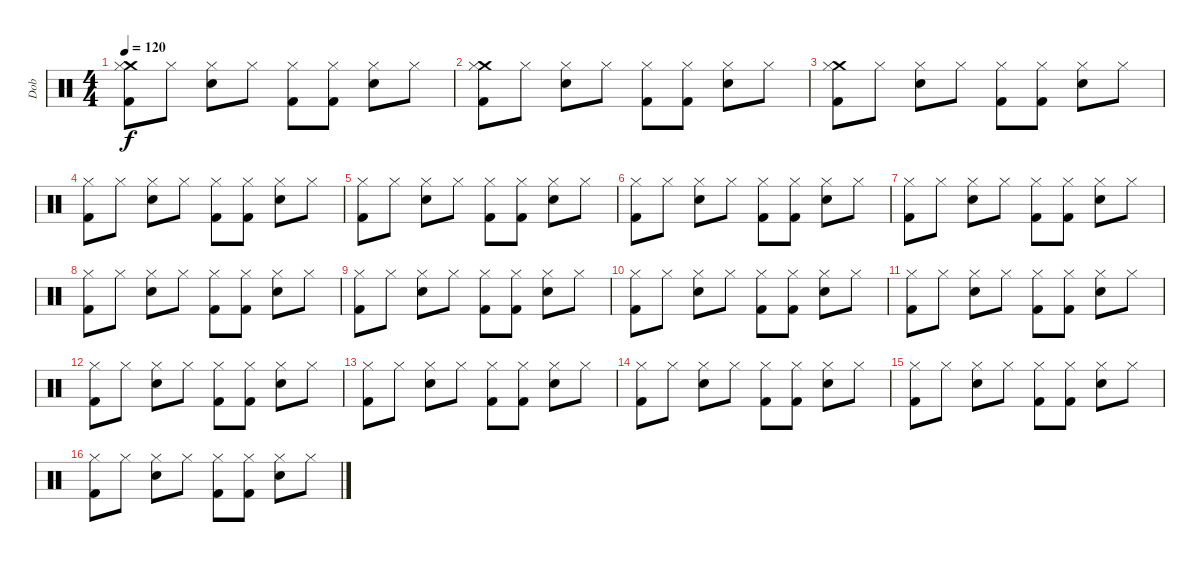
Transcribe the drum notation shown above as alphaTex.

\track ("Dob" "Dob") {instrument percussion}
\staff {score}
\articulation defaults
\ts (4 4)
\tempo 120
\clef neutral
\ks c
("Crash medium (hit)" "Hi-Hat (closed)" "Kick (hit) 2").8{dy f} "Hi-Hat (closed)".8 ("Hi-Hat (closed)" "Snare (hit) 2").8 "Hi-Hat (closed)".8 ("Hi-Hat (closed)" "Kick (hit) 2").8 ("Hi-Hat (closed)" "Kick (hit) 2").8 ("Hi-Hat (closed)" "Snare (hit) 2").8 "Hi-Hat (closed)".8 |
("Crash medium (hit)" "Hi-Hat (closed)" "Kick (hit) 2").8 "Hi-Hat (closed)".8 ("Hi-Hat (closed)" "Snare (hit) 2").8 "Hi-Hat (closed)".8 ("Hi-Hat (closed)" "Kick (hit) 2").8 ("Hi-Hat (closed)" "Kick (hit) 2").8 ("Hi-Hat (closed)" "Snare (hit) 2").8 "Hi-Hat (closed)".8 |
("Crash medium (hit)" "Hi-Hat (closed)" "Kick (hit) 2").8 "Hi-Hat (closed)".8 ("Hi-Hat (closed)" "Snare (hit) 2").8 "Hi-Hat (closed)".8 ("Hi-Hat (closed)" "Kick (hit) 2").8 ("Hi-Hat (closed)" "Kick (hit) 2").8 ("Hi-Hat (closed)" "Snare (hit) 2").8 "Hi-Hat (closed)".8 |
("Hi-Hat (closed)" "Kick (hit) 2").8 "Hi-Hat (closed)".8 ("Hi-Hat (closed)" "Snare (hit) 2").8 "Hi-Hat (closed)".8 ("Hi-Hat (closed)" "Kick (hit) 2").8 ("Hi-Hat (closed)" "Kick (hit) 2").8 ("Hi-Hat (closed)" "Snare (hit) 2").8 "Hi-Hat (closed)".8 |
("Hi-Hat (closed)" "Kick (hit) 2").8 "Hi-Hat (closed)".8 ("Hi-Hat (closed)" "Snare (hit) 2").8 "Hi-Hat (closed)".8 ("Hi-Hat (closed)" "Kick (hit) 2").8 ("Hi-Hat (closed)" "Kick (hit) 2").8 ("Hi-Hat (closed)" "Snare (hit) 2").8 "Hi-Hat (closed)".8 |
("Hi-Hat (closed)" "Kick (hit) 2").8 "Hi-Hat (closed)".8 ("Hi-Hat (closed)" "Snare (hit) 2").8 "Hi-Hat (closed)".8 ("Hi-Hat (closed)" "Kick (hit) 2").8 ("Hi-Hat (closed)" "Kick (hit) 2").8 ("Hi-Hat (closed)" "Snare (hit) 2").8 "Hi-Hat (closed)".8 |
("Hi-Hat (closed)" "Kick (hit) 2").8 "Hi-Hat (closed)".8 ("Hi-Hat (closed)" "Snare (hit) 2").8 "Hi-Hat (closed)".8 ("Hi-Hat (closed)" "Kick (hit) 2").8 ("Hi-Hat (closed)" "Kick (hit) 2").8 ("Hi-Hat (closed)" "Snare (hit) 2").8 "Hi-Hat (closed)".8 |
("Hi-Hat (closed)" "Kick (hit) 2").8 "Hi-Hat (closed)".8 ("Hi-Hat (closed)" "Snare (hit) 2").8 "Hi-Hat (closed)".8 ("Hi-Hat (closed)" "Kick (hit) 2").8 ("Hi-Hat (closed)" "Kick (hit) 2").8 ("Hi-Hat (closed)" "Snare (hit) 2").8 "Hi-Hat (closed)".8 |
("Hi-Hat (closed)" "Kick (hit) 2").8 "Hi-Hat (closed)".8 ("Hi-Hat (closed)" "Snare (hit) 2").8 "Hi-Hat (closed)".8 ("Hi-Hat (closed)" "Kick (hit) 2").8 ("Hi-Hat (closed)" "Kick (hit) 2").8 ("Hi-Hat (closed)" "Snare (hit) 2").8 "Hi-Hat (closed)".8 |
("Hi-Hat (closed)" "Kick (hit) 2").8 "Hi-Hat (closed)".8 ("Hi-Hat (closed)" "Snare (hit) 2").8 "Hi-Hat (closed)".8 ("Hi-Hat (closed)" "Kick (hit) 2").8 ("Hi-Hat (closed)" "Kick (hit) 2").8 ("Hi-Hat (closed)" "Snare (hit) 2").8 "Hi-Hat (closed)".8 |
("Hi-Hat (closed)" "Kick (hit) 2").8 "Hi-Hat (closed)".8 ("Hi-Hat (closed)" "Snare (hit) 2").8 "Hi-Hat (closed)".8 ("Hi-Hat (closed)" "Kick (hit) 2").8 ("Hi-Hat (closed)" "Kick (hit) 2").8 ("Hi-Hat (closed)" "Snare (hit) 2").8 "Hi-Hat (closed)".8 |
("Hi-Hat (closed)" "Kick (hit) 2").8 "Hi-Hat (closed)".8 ("Hi-Hat (closed)" "Snare (hit) 2").8 "Hi-Hat (closed)".8 ("Hi-Hat (closed)" "Kick (hit) 2").8 ("Hi-Hat (closed)" "Kick (hit) 2").8 ("Hi-Hat (closed)" "Snare (hit) 2").8 "Hi-Hat (closed)".8 |
("Hi-Hat (closed)" "Kick (hit) 2").8 "Hi-Hat (closed)".8 ("Hi-Hat (closed)" "Snare (hit) 2").8 "Hi-Hat (closed)".8 ("Hi-Hat (closed)" "Kick (hit) 2").8 ("Hi-Hat (closed)" "Kick (hit) 2").8 ("Hi-Hat (closed)" "Snare (hit) 2").8 "Hi-Hat (closed)".8 |
("Hi-Hat (closed)" "Kick (hit) 2").8 "Hi-Hat (closed)".8 ("Hi-Hat (closed)" "Snare (hit) 2").8 "Hi-Hat (closed)".8 ("Hi-Hat (closed)" "Kick (hit) 2").8 ("Hi-Hat (closed)" "Kick (hit) 2").8 ("Hi-Hat (closed)" "Snare (hit) 2").8 "Hi-Hat (closed)".8 |
("Hi-Hat (closed)" "Kick (hit) 2").8 "Hi-Hat (closed)".8 ("Hi-Hat (closed)" "Snare (hit) 2").8 "Hi-Hat (closed)".8 ("Hi-Hat (closed)" "Kick (hit) 2").8 ("Hi-Hat (closed)" "Kick (hit) 2").8 ("Hi-Hat (closed)" "Snare (hit) 2").8 "Hi-Hat (closed)".8 |
("Hi-Hat (closed)" "Kick (hit) 2").8 "Hi-Hat (closed)".8 ("Hi-Hat (closed)" "Snare (hit) 2").8 "Hi-Hat (closed)".8 ("Hi-Hat (closed)" "Kick (hit) 2").8 ("Hi-Hat (closed)" "Kick (hit) 2").8 ("Hi-Hat (closed)" "Snare (hit) 2").8 "Hi-Hat (closed)".8
